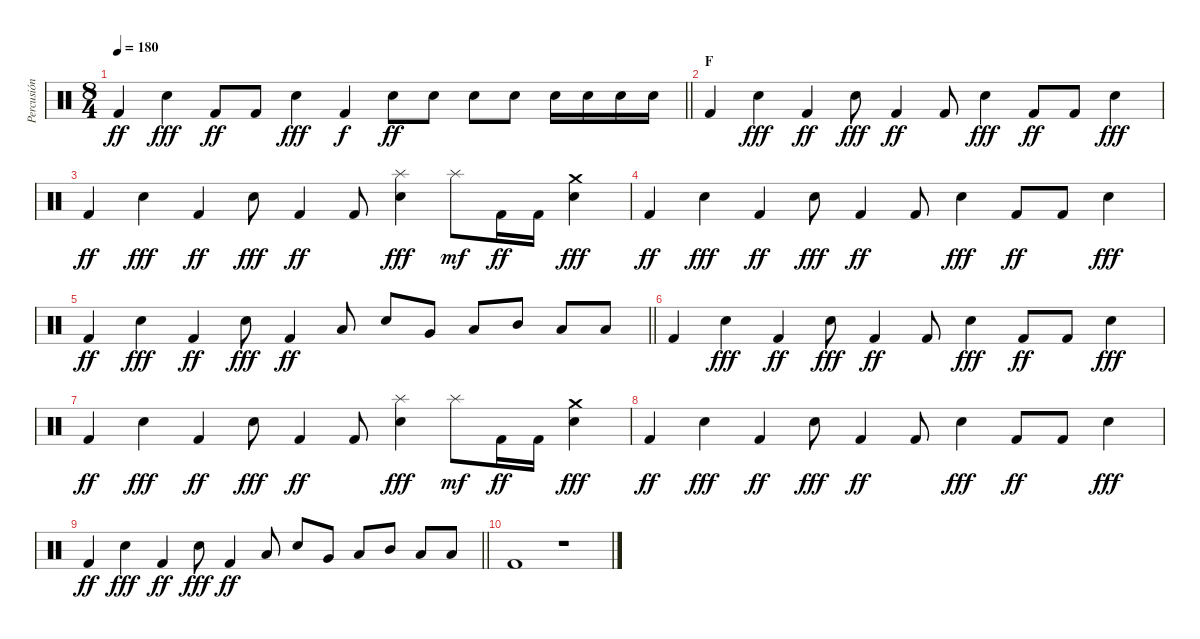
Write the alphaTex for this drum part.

\track ("Percusión" "Percusión") {instrument percussion}
\staff {score}
\articulation defaults
\ts (8 4)
\tempo 180
\clef neutral
\barLineRight lightlight
\ks c "Kick (hit) 2".4{dy ff} "Electric Snare (hit)".4{dy fff} "Kick (hit) 2".8{dy ff} "Kick (hit) 2".8 "Electric Snare (hit)".4{dy fff} "Kick (hit) 2".4{dy f} "Electric Snare (hit)".8{dy ff} "Electric Snare (hit)".8 "Electric Snare (hit)".8 "Electric Snare (hit)".8 "Electric Snare (hit)".16 "Electric Snare (hit)".16 "Electric Snare (hit)".16 "Electric Snare (hit)".16
|
\section ("" "F")
"Kick (hit) 2".4 "Electric Snare (hit)".4{dy fff} "Kick (hit) 2".4{dy ff} "Electric Snare (hit)".8{dy fff} "Kick (hit) 2".4{dy ff} "Kick (hit) 2".8 "Electric Snare (hit)".4{dy fff} "Kick (hit) 2".8{dy ff} "Kick (hit) 2".8 "Electric Snare (hit)".4{dy fff} |
"Kick (hit) 2".4{dy ff} "Electric Snare (hit)".4{dy fff} "Kick (hit) 2".4{dy ff} "Electric Snare (hit)".8{dy fff} "Kick (hit) 2".4{dy ff} "Kick (hit) 2".8 ("Splash (hit)" "Electric Snare (hit)").4{dy fff} "Splash (hit)".8{dy mf} "Kick (hit) 2".16{dy ff} "Kick (hit) 2".16 ("Crash medium (hit)" "Electric Snare (hit)").4{dy fff} |
"Kick (hit) 2".4{dy ff} "Electric Snare (hit)".4{dy fff} "Kick (hit) 2".4{dy ff} "Electric Snare (hit)".8{dy fff} "Kick (hit) 2".4{dy ff} "Kick (hit) 2".8 "Electric Snare (hit)".4{dy fff} "Kick (hit) 2".8{dy ff} "Kick (hit) 2".8 "Electric Snare (hit)".4{dy fff} |
\barLineRight lightlight "Kick (hit) 2".4{dy ff} "Electric Snare (hit)".4{dy fff} "Kick (hit) 2".4{dy ff} "Electric Snare (hit)".8{dy fff} "Kick (hit) 2".4{dy ff} "Low Floor Tom (hit)".8 "Electric Snare (hit)".8 "Very Low Tom (hit)".8 "Low Tom (hit)".8 "Mid Tom (hit)".8 "Low Tom (hit)".8 "Low Tom (hit)".8
|
"Kick (hit) 2".4 "Electric Snare (hit)".4{dy fff} "Kick (hit) 2".4{dy ff} "Electric Snare (hit)".8{dy fff} "Kick (hit) 2".4{dy ff} "Kick (hit) 2".8 "Electric Snare (hit)".4{dy fff} "Kick (hit) 2".8{dy ff} "Kick (hit) 2".8 "Electric Snare (hit)".4{dy fff} |
"Kick (hit) 2".4{dy ff} "Electric Snare (hit)".4{dy fff} "Kick (hit) 2".4{dy ff} "Electric Snare (hit)".8{dy fff} "Kick (hit) 2".4{dy ff} "Kick (hit) 2".8 ("Splash (hit)" "Electric Snare (hit)").4{dy fff} "Splash (hit)".8{dy mf} "Kick (hit) 2".16{dy ff} "Kick (hit) 2".16 ("Crash medium (hit)" "Electric Snare (hit)").4{dy fff} |
"Kick (hit) 2".4{dy ff} "Electric Snare (hit)".4{dy fff} "Kick (hit) 2".4{dy ff} "Electric Snare (hit)".8{dy fff} "Kick (hit) 2".4{dy ff} "Kick (hit) 2".8 "Electric Snare (hit)".4{dy fff} "Kick (hit) 2".8{dy ff} "Kick (hit) 2".8 "Electric Snare (hit)".4{dy fff} |
\barLineRight lightlight "Kick (hit) 2".4{dy ff} "Electric Snare (hit)".4{dy fff} "Kick (hit) 2".4{dy ff} "Electric Snare (hit)".8{dy fff} "Kick (hit) 2".4{dy ff} "Low Floor Tom (hit)".8 "Electric Snare (hit)".8 "Very Low Tom (hit)".8 "Low Tom (hit)".8 "Mid Tom (hit)".8 "Low Tom (hit)".8 "Low Tom (hit)".8
|
"Kick (hit) 2".1 r.1
